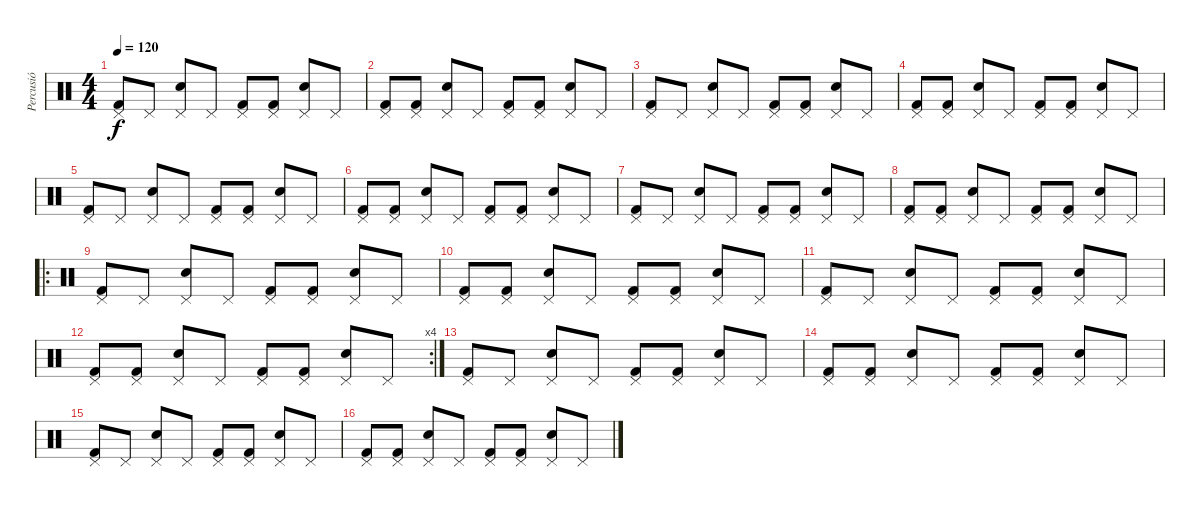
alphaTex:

\track ("Percusió" "Percusió") {instrument percussion}
\staff {score}
\articulation defaults
\ts (4 4)
\tempo 120
\clef neutral
\ks c
("Pedal Hi-Hat (hit)" "Kick (hit) 2").8{dy f} "Pedal Hi-Hat (hit)".8 ("Pedal Hi-Hat (hit)" "Snare (hit) 2").8 "Pedal Hi-Hat (hit)".8 ("Pedal Hi-Hat (hit)" "Kick (hit) 2").8 ("Pedal Hi-Hat (hit)" "Kick (hit) 2").8 ("Pedal Hi-Hat (hit)" "Snare (hit) 2").8 "Pedal Hi-Hat (hit)".8 |
("Pedal Hi-Hat (hit)" "Kick (hit) 2").8 ("Pedal Hi-Hat (hit)" "Kick (hit) 2").8 ("Pedal Hi-Hat (hit)" "Snare (hit) 2").8 "Pedal Hi-Hat (hit)".8 ("Pedal Hi-Hat (hit)" "Kick (hit) 2").8 ("Pedal Hi-Hat (hit)" "Kick (hit) 2").8 ("Pedal Hi-Hat (hit)" "Snare (hit) 2").8 "Pedal Hi-Hat (hit)".8 |
("Pedal Hi-Hat (hit)" "Kick (hit) 2").8 "Pedal Hi-Hat (hit)".8 ("Pedal Hi-Hat (hit)" "Snare (hit) 2").8 "Pedal Hi-Hat (hit)".8 ("Pedal Hi-Hat (hit)" "Kick (hit) 2").8 ("Pedal Hi-Hat (hit)" "Kick (hit) 2").8 ("Pedal Hi-Hat (hit)" "Snare (hit) 2").8 "Pedal Hi-Hat (hit)".8 |
("Pedal Hi-Hat (hit)" "Kick (hit) 2").8 ("Pedal Hi-Hat (hit)" "Kick (hit) 2").8 ("Pedal Hi-Hat (hit)" "Snare (hit) 2").8 "Pedal Hi-Hat (hit)".8 ("Pedal Hi-Hat (hit)" "Kick (hit) 2").8 ("Pedal Hi-Hat (hit)" "Kick (hit) 2").8 ("Pedal Hi-Hat (hit)" "Snare (hit) 2").8 "Pedal Hi-Hat (hit)".8 |
("Pedal Hi-Hat (hit)" "Kick (hit) 2").8 "Pedal Hi-Hat (hit)".8 ("Pedal Hi-Hat (hit)" "Snare (hit) 2").8 "Pedal Hi-Hat (hit)".8 ("Pedal Hi-Hat (hit)" "Kick (hit) 2").8 ("Pedal Hi-Hat (hit)" "Kick (hit) 2").8 ("Pedal Hi-Hat (hit)" "Snare (hit) 2").8 "Pedal Hi-Hat (hit)".8 |
("Pedal Hi-Hat (hit)" "Kick (hit) 2").8 ("Pedal Hi-Hat (hit)" "Kick (hit) 2").8 ("Pedal Hi-Hat (hit)" "Snare (hit) 2").8 "Pedal Hi-Hat (hit)".8 ("Pedal Hi-Hat (hit)" "Kick (hit) 2").8 ("Pedal Hi-Hat (hit)" "Kick (hit) 2").8 ("Pedal Hi-Hat (hit)" "Snare (hit) 2").8 "Pedal Hi-Hat (hit)".8 |
("Pedal Hi-Hat (hit)" "Kick (hit) 2").8 "Pedal Hi-Hat (hit)".8 ("Pedal Hi-Hat (hit)" "Snare (hit) 2").8 "Pedal Hi-Hat (hit)".8 ("Pedal Hi-Hat (hit)" "Kick (hit) 2").8 ("Pedal Hi-Hat (hit)" "Kick (hit) 2").8 ("Pedal Hi-Hat (hit)" "Snare (hit) 2").8 "Pedal Hi-Hat (hit)".8 |
("Pedal Hi-Hat (hit)" "Kick (hit) 2").8 ("Pedal Hi-Hat (hit)" "Kick (hit) 2").8 ("Pedal Hi-Hat (hit)" "Snare (hit) 2").8 "Pedal Hi-Hat (hit)".8 ("Pedal Hi-Hat (hit)" "Kick (hit) 2").8 ("Pedal Hi-Hat (hit)" "Kick (hit) 2").8 ("Pedal Hi-Hat (hit)" "Snare (hit) 2").8 "Pedal Hi-Hat (hit)".8 |
\ro
("Pedal Hi-Hat (hit)" "Kick (hit) 2").8 "Pedal Hi-Hat (hit)".8 ("Pedal Hi-Hat (hit)" "Snare (hit) 2").8 "Pedal Hi-Hat (hit)".8 ("Pedal Hi-Hat (hit)" "Kick (hit) 2").8 ("Pedal Hi-Hat (hit)" "Kick (hit) 2").8 ("Pedal Hi-Hat (hit)" "Snare (hit) 2").8 "Pedal Hi-Hat (hit)".8 |
("Pedal Hi-Hat (hit)" "Kick (hit) 2").8 ("Pedal Hi-Hat (hit)" "Kick (hit) 2").8 ("Pedal Hi-Hat (hit)" "Snare (hit) 2").8 "Pedal Hi-Hat (hit)".8 ("Pedal Hi-Hat (hit)" "Kick (hit) 2").8 ("Pedal Hi-Hat (hit)" "Kick (hit) 2").8 ("Pedal Hi-Hat (hit)" "Snare (hit) 2").8 "Pedal Hi-Hat (hit)".8 |
("Pedal Hi-Hat (hit)" "Kick (hit) 2").8 "Pedal Hi-Hat (hit)".8 ("Pedal Hi-Hat (hit)" "Snare (hit) 2").8 "Pedal Hi-Hat (hit)".8 ("Pedal Hi-Hat (hit)" "Kick (hit) 2").8 ("Pedal Hi-Hat (hit)" "Kick (hit) 2").8 ("Pedal Hi-Hat (hit)" "Snare (hit) 2").8 "Pedal Hi-Hat (hit)".8 |
\rc 4
("Pedal Hi-Hat (hit)" "Kick (hit) 2").8 ("Pedal Hi-Hat (hit)" "Kick (hit) 2").8 ("Pedal Hi-Hat (hit)" "Snare (hit) 2").8 "Pedal Hi-Hat (hit)".8 ("Pedal Hi-Hat (hit)" "Kick (hit) 2").8 ("Pedal Hi-Hat (hit)" "Kick (hit) 2").8 ("Pedal Hi-Hat (hit)" "Snare (hit) 2").8 "Pedal Hi-Hat (hit)".8 |
("Pedal Hi-Hat (hit)" "Kick (hit) 2").8 "Pedal Hi-Hat (hit)".8 ("Pedal Hi-Hat (hit)" "Snare (hit) 2").8 "Pedal Hi-Hat (hit)".8 ("Pedal Hi-Hat (hit)" "Kick (hit) 2").8 ("Pedal Hi-Hat (hit)" "Kick (hit) 2").8 ("Pedal Hi-Hat (hit)" "Snare (hit) 2").8 "Pedal Hi-Hat (hit)".8 |
("Pedal Hi-Hat (hit)" "Kick (hit) 2").8 ("Pedal Hi-Hat (hit)" "Kick (hit) 2").8 ("Pedal Hi-Hat (hit)" "Snare (hit) 2").8 "Pedal Hi-Hat (hit)".8 ("Pedal Hi-Hat (hit)" "Kick (hit) 2").8 ("Pedal Hi-Hat (hit)" "Kick (hit) 2").8 ("Pedal Hi-Hat (hit)" "Snare (hit) 2").8 "Pedal Hi-Hat (hit)".8 |
("Pedal Hi-Hat (hit)" "Kick (hit) 2").8 "Pedal Hi-Hat (hit)".8 ("Pedal Hi-Hat (hit)" "Snare (hit) 2").8 "Pedal Hi-Hat (hit)".8 ("Pedal Hi-Hat (hit)" "Kick (hit) 2").8 ("Pedal Hi-Hat (hit)" "Kick (hit) 2").8 ("Pedal Hi-Hat (hit)" "Snare (hit) 2").8 "Pedal Hi-Hat (hit)".8 |
("Pedal Hi-Hat (hit)" "Kick (hit) 2").8 ("Pedal Hi-Hat (hit)" "Kick (hit) 2").8 ("Pedal Hi-Hat (hit)" "Snare (hit) 2").8 "Pedal Hi-Hat (hit)".8 ("Pedal Hi-Hat (hit)" "Kick (hit) 2").8 ("Pedal Hi-Hat (hit)" "Kick (hit) 2").8 ("Pedal Hi-Hat (hit)" "Snare (hit) 2").8 "Pedal Hi-Hat (hit)".8
